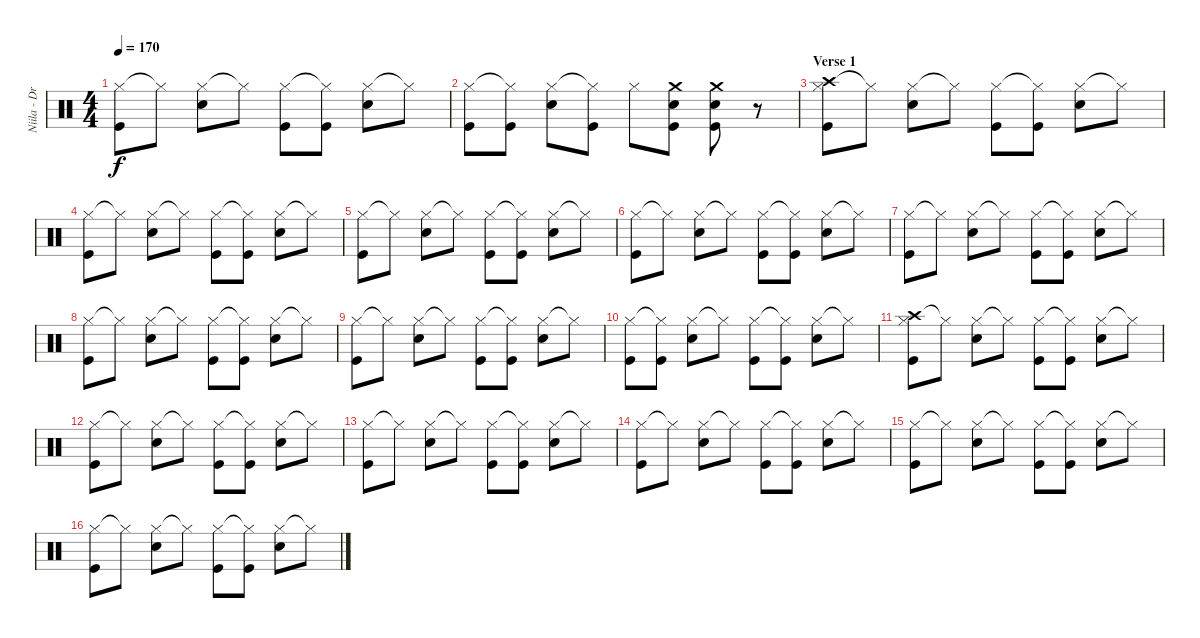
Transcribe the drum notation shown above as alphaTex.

\track ("Niila - Drums" "Niila - Dr") {instrument percussion}
\staff {score}
\articulation defaults
\ts (4 4)
\tempo 170
\clef neutral
\ks c
("Hi-Hat (closed)" "Kick (hit)").8{dy f} "Hi-Hat (closed)"{t}.8 ("Hi-Hat (closed)" "Snare (hit) 2").8 "Hi-Hat (closed)"{t}.8 ("Hi-Hat (closed)" "Kick (hit)").8 ("Hi-Hat (closed)"{t} "Kick (hit)").8 ("Hi-Hat (closed)" "Snare (hit) 2").8 "Hi-Hat (closed)"{t}.8 |
("Hi-Hat (closed)" "Kick (hit)").8 ("Hi-Hat (closed)"{t} "Kick (hit)").8 ("Hi-Hat (closed)" "Snare (hit) 2").8 ("Hi-Hat (closed)"{t} "Kick (hit)").8 "Hi-Hat (closed)".8 ("Crash medium (hit)" "Snare (hit) 2" "Kick (hit)").8 ("Crash medium (hit)" "Snare (hit) 2" "Kick (hit)").8 r.8 |
\section ("" "Verse 1")
("Crash high (hit)" "Hi-Hat (closed)" "Kick (hit)").8 "Hi-Hat (closed)"{t}.8 ("Hi-Hat (closed)" "Snare (hit) 2").8 "Hi-Hat (closed)"{t}.8 ("Hi-Hat (closed)" "Kick (hit)").8 ("Hi-Hat (closed)"{t} "Kick (hit)").8 ("Hi-Hat (closed)" "Snare (hit) 2").8 "Hi-Hat (closed)"{t}.8 |
("Hi-Hat (closed)" "Kick (hit)").8 "Hi-Hat (closed)"{t}.8 ("Hi-Hat (closed)" "Snare (hit) 2").8 "Hi-Hat (closed)"{t}.8 ("Hi-Hat (closed)" "Kick (hit)").8 ("Hi-Hat (closed)"{t} "Kick (hit)").8 ("Hi-Hat (closed)" "Snare (hit) 2").8 "Hi-Hat (closed)"{t}.8 |
("Hi-Hat (closed)" "Kick (hit)").8 "Hi-Hat (closed)"{t}.8 ("Hi-Hat (closed)" "Snare (hit) 2").8 "Hi-Hat (closed)"{t}.8 ("Hi-Hat (closed)" "Kick (hit)").8 ("Hi-Hat (closed)"{t} "Kick (hit)").8 ("Hi-Hat (closed)" "Snare (hit) 2").8 "Hi-Hat (closed)"{t}.8 |
("Hi-Hat (closed)" "Kick (hit)").8 "Hi-Hat (closed)"{t}.8 ("Hi-Hat (closed)" "Snare (hit) 2").8 "Hi-Hat (closed)"{t}.8 ("Hi-Hat (closed)" "Kick (hit)").8 ("Hi-Hat (closed)"{t} "Kick (hit)").8 ("Hi-Hat (closed)" "Snare (hit) 2").8 "Hi-Hat (closed)"{t}.8 |
("Hi-Hat (closed)" "Kick (hit)").8 "Hi-Hat (closed)"{t}.8 ("Hi-Hat (closed)" "Snare (hit) 2").8 "Hi-Hat (closed)"{t}.8 ("Hi-Hat (closed)" "Kick (hit)").8 ("Hi-Hat (closed)"{t} "Kick (hit)").8 ("Hi-Hat (closed)" "Snare (hit) 2").8 "Hi-Hat (closed)"{t}.8 |
("Hi-Hat (closed)" "Kick (hit)").8 "Hi-Hat (closed)"{t}.8 ("Hi-Hat (closed)" "Snare (hit) 2").8 "Hi-Hat (closed)"{t}.8 ("Hi-Hat (closed)" "Kick (hit)").8 ("Hi-Hat (closed)"{t} "Kick (hit)").8 ("Hi-Hat (closed)" "Snare (hit) 2").8 "Hi-Hat (closed)"{t}.8 |
("Hi-Hat (closed)" "Kick (hit)").8 "Hi-Hat (closed)"{t}.8 ("Hi-Hat (closed)" "Snare (hit) 2").8 "Hi-Hat (closed)"{t}.8 ("Hi-Hat (closed)" "Kick (hit)").8 ("Hi-Hat (closed)"{t} "Kick (hit)").8 ("Hi-Hat (closed)" "Snare (hit) 2").8 "Hi-Hat (closed)"{t}.8 |
("Hi-Hat (closed)" "Kick (hit)").8 ("Hi-Hat (closed)"{t} "Kick (hit)").8 ("Hi-Hat (closed)" "Snare (hit) 2").8 "Hi-Hat (closed)"{t}.8 ("Hi-Hat (closed)" "Kick (hit)").8 ("Hi-Hat (closed)"{t} "Kick (hit)").8 ("Hi-Hat (closed)" "Snare (hit) 2").8 "Hi-Hat (closed)"{t}.8 |
("Crash high (hit)" "Hi-Hat (closed)" "Kick (hit)").8 "Hi-Hat (closed)"{t}.8 ("Hi-Hat (closed)" "Snare (hit) 2").8 "Hi-Hat (closed)"{t}.8 ("Hi-Hat (closed)" "Kick (hit)").8 ("Hi-Hat (closed)"{t} "Kick (hit)").8 ("Hi-Hat (closed)" "Snare (hit) 2").8 "Hi-Hat (closed)"{t}.8 |
("Hi-Hat (closed)" "Kick (hit)").8 "Hi-Hat (closed)"{t}.8 ("Hi-Hat (closed)" "Snare (hit) 2").8 "Hi-Hat (closed)"{t}.8 ("Hi-Hat (closed)" "Kick (hit)").8 ("Hi-Hat (closed)"{t} "Kick (hit)").8 ("Hi-Hat (closed)" "Snare (hit) 2").8 "Hi-Hat (closed)"{t}.8 |
("Hi-Hat (closed)" "Kick (hit)").8 "Hi-Hat (closed)"{t}.8 ("Hi-Hat (closed)" "Snare (hit) 2").8 "Hi-Hat (closed)"{t}.8 ("Hi-Hat (closed)" "Kick (hit)").8 ("Hi-Hat (closed)"{t} "Kick (hit)").8 ("Hi-Hat (closed)" "Snare (hit) 2").8 "Hi-Hat (closed)"{t}.8 |
("Hi-Hat (closed)" "Kick (hit)").8 "Hi-Hat (closed)"{t}.8 ("Hi-Hat (closed)" "Snare (hit) 2").8 "Hi-Hat (closed)"{t}.8 ("Hi-Hat (closed)" "Kick (hit)").8 ("Hi-Hat (closed)"{t} "Kick (hit)").8 ("Hi-Hat (closed)" "Snare (hit) 2").8 "Hi-Hat (closed)"{t}.8 |
("Hi-Hat (closed)" "Kick (hit)").8 "Hi-Hat (closed)"{t}.8 ("Hi-Hat (closed)" "Snare (hit) 2").8 "Hi-Hat (closed)"{t}.8 ("Hi-Hat (closed)" "Kick (hit)").8 ("Hi-Hat (closed)"{t} "Kick (hit)").8 ("Hi-Hat (closed)" "Snare (hit) 2").8 "Hi-Hat (closed)"{t}.8 |
("Hi-Hat (closed)" "Kick (hit)").8 "Hi-Hat (closed)"{t}.8 ("Hi-Hat (closed)" "Snare (hit) 2").8 "Hi-Hat (closed)"{t}.8 ("Hi-Hat (closed)" "Kick (hit)").8 ("Hi-Hat (closed)"{t} "Kick (hit)").8 ("Hi-Hat (closed)" "Snare (hit) 2").8 "Hi-Hat (closed)"{t}.8
